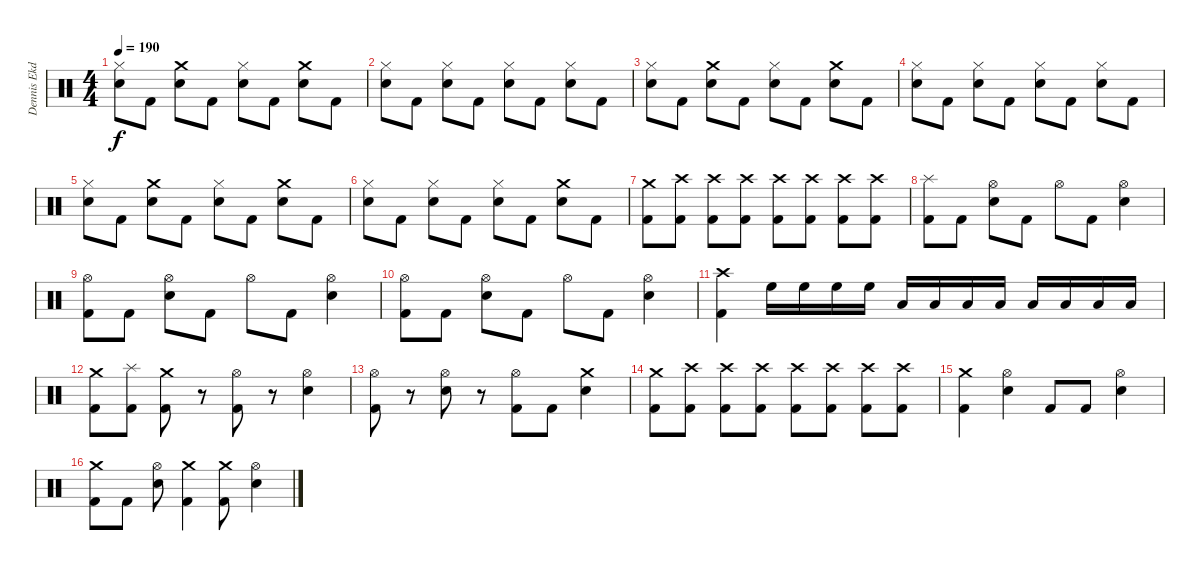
\track ("Dennis Ekdahl" "Dennis Ekd") {instrument percussion}
\staff {score}
\articulation defaults
\ts (4 4)
\tempo 190
\clef neutral
\ks c
("Hi-Hat (closed)" "Snare (hit) 2").8{dy f} "Kick (hit) 2".8 ("Crash medium (hit)" "Snare (hit) 2").8 "Kick (hit) 2".8 ("Hi-Hat (closed)" "Snare (hit) 2").8 "Kick (hit) 2".8 ("Crash medium (hit)" "Snare (hit) 2").8 "Kick (hit) 2".8 |
("Hi-Hat (closed)" "Snare (hit) 2").8 "Kick (hit) 2".8 ("Hi-Hat (closed)" "Snare (hit) 2").8 "Kick (hit) 2".8 ("Hi-Hat (closed)" "Snare (hit) 2").8 "Kick (hit) 2".8 ("Hi-Hat (closed)" "Snare (hit) 2").8 "Kick (hit) 2".8 |
("Hi-Hat (closed)" "Snare (hit) 2").8 "Kick (hit) 2".8 ("Crash medium (hit)" "Snare (hit) 2").8 "Kick (hit) 2".8 ("Hi-Hat (closed)" "Snare (hit) 2").8 "Kick (hit) 2".8 ("Crash medium (hit)" "Snare (hit) 2").8 "Kick (hit) 2".8 |
("Hi-Hat (closed)" "Snare (hit) 2").8 "Kick (hit) 2".8 ("Hi-Hat (closed)" "Snare (hit) 2").8 "Kick (hit) 2".8 ("Hi-Hat (closed)" "Snare (hit) 2").8 "Kick (hit) 2".8 ("Hi-Hat (closed)" "Snare (hit) 2").8 "Kick (hit) 2".8 |
("Hi-Hat (closed)" "Snare (hit) 2").8 "Kick (hit) 2".8 ("Crash medium (hit)" "Snare (hit) 2").8 "Kick (hit) 2".8 ("Hi-Hat (closed)" "Snare (hit) 2").8 "Kick (hit) 2".8 ("Crash medium (hit)" "Snare (hit) 2").8 "Kick (hit) 2".8 |
("Hi-Hat (closed)" "Snare (hit) 2").8 "Kick (hit) 2".8 ("Hi-Hat (closed)" "Snare (hit) 2").8 "Kick (hit) 2".8 ("Hi-Hat (closed)" "Snare (hit) 2").8 "Kick (hit) 2".8 ("Crash medium (hit)" "Snare (hit) 2").8 "Kick (hit) 2".8 |
("Crash medium (hit)" "Kick (hit) 2").8 ("Crash high (hit)" "Kick (hit) 2").8 ("Crash high (hit)" "Kick (hit) 2").8 ("Crash high (hit)" "Kick (hit) 2").8 ("Crash high (hit)" "Kick (hit) 2").8 ("Crash high (hit)" "Kick (hit) 2").8 ("Crash high (hit)" "Kick (hit) 2").8 ("Crash high (hit)" "Kick (hit) 2").8 |
("Splash (hit)" "Kick (hit) 2").8 "Kick (hit) 2".8 ("Hi-Hat (open)" "Snare (hit) 2").8 "Kick (hit) 2".8 "Hi-Hat (open)".8 "Kick (hit) 2".8 ("Hi-Hat (open)" "Snare (hit) 2").4 |
("Hi-Hat (open)" "Kick (hit) 2").8 "Kick (hit) 2".8 ("Hi-Hat (open)" "Snare (hit) 2").8 "Kick (hit) 2".8 "Hi-Hat (open)".8 "Kick (hit) 2".8 ("Hi-Hat (open)" "Snare (hit) 2").4 |
("Hi-Hat (open)" "Kick (hit) 2").8 "Kick (hit) 2".8 ("Hi-Hat (open)" "Snare (hit) 2").8 "Kick (hit) 2".8 "Hi-Hat (open)".8 "Kick (hit) 2".8 ("Hi-Hat (open)" "Snare (hit) 2").4 |
("Crash high (hit)" "Kick (hit) 2").4 "High Floor Tom (hit)".16 "High Floor Tom (hit)".16 "High Floor Tom (hit)".16 "High Floor Tom (hit)".16 "Low Tom (hit)".16 "Low Tom (hit)".16 "Low Tom (hit)".16 "Low Tom (hit)".16 "Low Floor Tom (hit)".16 "Low Floor Tom (hit)".16 "Low Floor Tom (hit)".16 "Low Floor Tom (hit)".16 |
("Crash medium (hit)" "Kick (hit) 2").8 ("Splash (hit)" "Kick (hit) 2").8 ("Crash medium (hit)" "Kick (hit) 2").8 r.8 ("Hi-Hat (open)" "Kick (hit) 2").8 r.8 ("Hi-Hat (open)" "Snare (hit) 2").4 |
("Hi-Hat (open)" "Kick (hit) 2").8 r.8 ("Hi-Hat (open)" "Snare (hit) 2").8 r.8 ("Hi-Hat (open)" "Kick (hit) 2").8 "Kick (hit) 2".8 ("Crash medium (hit)" "Snare (hit) 2").4 |
("Crash medium (hit)" "Kick (hit) 2").8 ("Crash high (hit)" "Kick (hit) 2").8 ("Crash high (hit)" "Kick (hit) 2").8 ("Crash high (hit)" "Kick (hit) 2").8 ("Crash high (hit)" "Kick (hit) 2").8 ("Crash high (hit)" "Kick (hit) 2").8 ("Crash high (hit)" "Kick (hit) 2").8 ("Crash high (hit)" "Kick (hit) 2").8 |
("Crash medium (hit)" "Kick (hit) 2").4 ("Hi-Hat (open)" "Snare (hit) 2").4 "Kick (hit) 2".8 "Kick (hit) 2".8 ("Hi-Hat (open)" "Snare (hit) 2").4 |
("Crash medium (hit)" "Kick (hit) 2").8 "Kick (hit) 2".8 ("Hi-Hat (open)" "Snare (hit) 2").8 ("Crash medium (hit)" "Kick (hit) 2").4 ("Crash medium (hit)" "Kick (hit) 2").8 ("Hi-Hat (open)" "Snare (hit) 2").4
